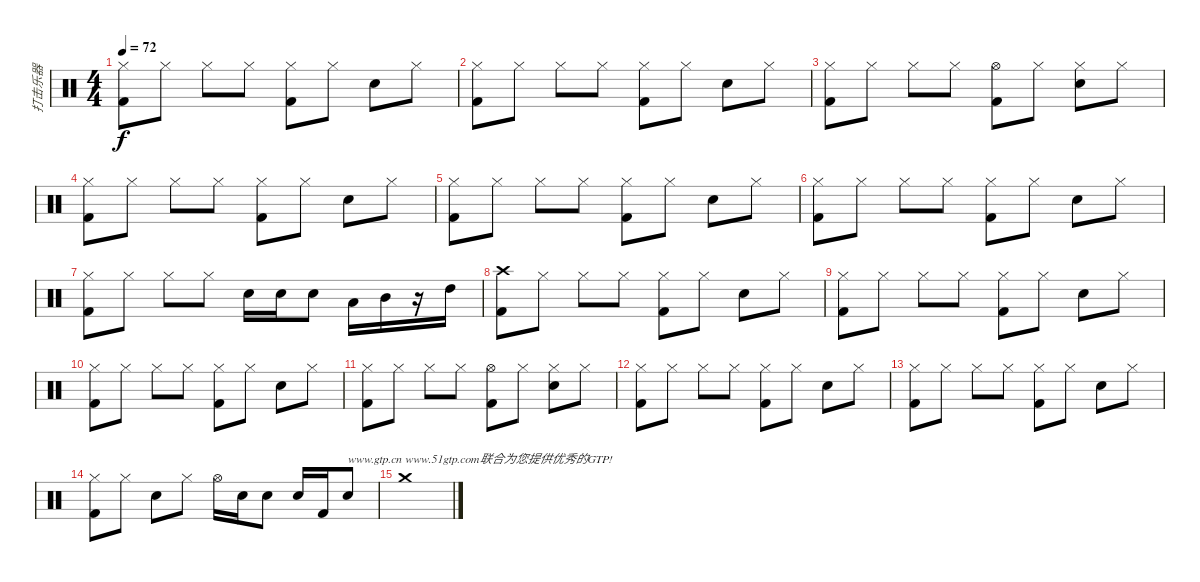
\track ("打击乐器" "打击乐器") {instrument percussion}
\staff {score}
\articulation defaults
\ts (4 4)
\tempo 72
\clef neutral
\ks c
("Hi-Hat (closed)" "Kick (hit) 2").8{dy f} "Hi-Hat (closed)".8 "Hi-Hat (closed)".8 "Hi-Hat (closed)".8 ("Hi-Hat (closed)" "Kick (hit) 2").8 "Hi-Hat (closed)".8 "Electric Snare (hit)".8 "Hi-Hat (closed)".8 |
("Hi-Hat (closed)" "Kick (hit) 2").8 "Hi-Hat (closed)".8 "Hi-Hat (closed)".8 "Hi-Hat (closed)".8 ("Hi-Hat (closed)" "Kick (hit) 2").8 "Hi-Hat (closed)".8 "Electric Snare (hit)".8 "Hi-Hat (closed)".8 |
("Hi-Hat (closed)" "Kick (hit) 2").8 "Hi-Hat (closed)".8 "Hi-Hat (closed)".8 "Hi-Hat (closed)".8 ("Hi-Hat (open)" "Kick (hit) 2").8 "Hi-Hat (closed)".8 ("Hi-Hat (closed)" "Electric Snare (hit)").8 "Hi-Hat (closed)".8 |
("Hi-Hat (closed)" "Kick (hit) 2").8 "Hi-Hat (closed)".8 "Hi-Hat (closed)".8 "Hi-Hat (closed)".8 ("Hi-Hat (closed)" "Kick (hit) 2").8 "Hi-Hat (closed)".8 "Electric Snare (hit)".8 "Hi-Hat (closed)".8 |
("Hi-Hat (closed)" "Kick (hit) 2").8 "Hi-Hat (closed)".8 "Hi-Hat (closed)".8 "Hi-Hat (closed)".8 ("Hi-Hat (closed)" "Kick (hit) 2").8 "Hi-Hat (closed)".8 "Electric Snare (hit)".8 "Hi-Hat (closed)".8 |
("Hi-Hat (closed)" "Kick (hit) 2").8 "Hi-Hat (closed)".8 "Hi-Hat (closed)".8 "Hi-Hat (closed)".8 ("Hi-Hat (closed)" "Kick (hit) 2").8 "Hi-Hat (closed)".8 "Electric Snare (hit)".8 "Hi-Hat (closed)".8 |
("Hi-Hat (closed)" "Kick (hit) 2").8 "Hi-Hat (closed)".8 "Hi-Hat (closed)".8 "Hi-Hat (closed)".8 "Electric Snare (hit)".16 "Electric Snare (hit)".16 "Electric Snare (hit)".8 "Low Tom (hit)".16 "Mid Tom (hit)".16 r.16 "High Tom (hit)".16 |
("Crash high (hit)" "Kick (hit) 2").8 "Hi-Hat (closed)".8 "Hi-Hat (closed)".8 "Hi-Hat (closed)".8 ("Hi-Hat (closed)" "Kick (hit) 2").8 "Hi-Hat (closed)".8 "Electric Snare (hit)".8 "Hi-Hat (closed)".8 |
("Hi-Hat (closed)" "Kick (hit) 2").8 "Hi-Hat (closed)".8 "Hi-Hat (closed)".8 "Hi-Hat (closed)".8 ("Hi-Hat (closed)" "Kick (hit) 2").8 "Hi-Hat (closed)".8 "Electric Snare (hit)".8 "Hi-Hat (closed)".8 |
("Hi-Hat (closed)" "Kick (hit) 2").8 "Hi-Hat (closed)".8 "Hi-Hat (closed)".8 "Hi-Hat (closed)".8 ("Hi-Hat (closed)" "Kick (hit) 2").8 "Hi-Hat (closed)".8 "Electric Snare (hit)".8 "Hi-Hat (closed)".8 |
("Hi-Hat (closed)" "Kick (hit) 2").8 "Hi-Hat (closed)".8 "Hi-Hat (closed)".8 "Hi-Hat (closed)".8 ("Hi-Hat (open)" "Kick (hit) 2").8 "Hi-Hat (closed)".8 ("Hi-Hat (closed)" "Electric Snare (hit)").8 "Hi-Hat (closed)".8 |
("Hi-Hat (closed)" "Kick (hit) 2").8 "Hi-Hat (closed)".8 "Hi-Hat (closed)".8 "Hi-Hat (closed)".8 ("Hi-Hat (closed)" "Kick (hit) 2").8 "Hi-Hat (closed)".8 "Electric Snare (hit)".8 "Hi-Hat (closed)".8 |
("Hi-Hat (closed)" "Kick (hit) 2").8 "Hi-Hat (closed)".8 "Hi-Hat (closed)".8 "Hi-Hat (closed)".8 ("Hi-Hat (closed)" "Kick (hit) 2").8 "Hi-Hat (closed)".8 "Electric Snare (hit)".8 "Hi-Hat (closed)".8 |
("Hi-Hat (closed)" "Kick (hit) 2").8 "Hi-Hat (closed)".8 "Electric Snare (hit)".8 "Hi-Hat (closed)".8 "Hi-Hat (open)".16 "Electric Snare (hit)".16 "Electric Snare (hit)".8 "Electric Snare (hit)".16 "Kick (hit) 2".16 "Electric Snare (hit)".8{txt "www.gtp.cn www.51gtp.com联合为您提供优秀的GTP!"} |
"Crash medium (hit)".1
